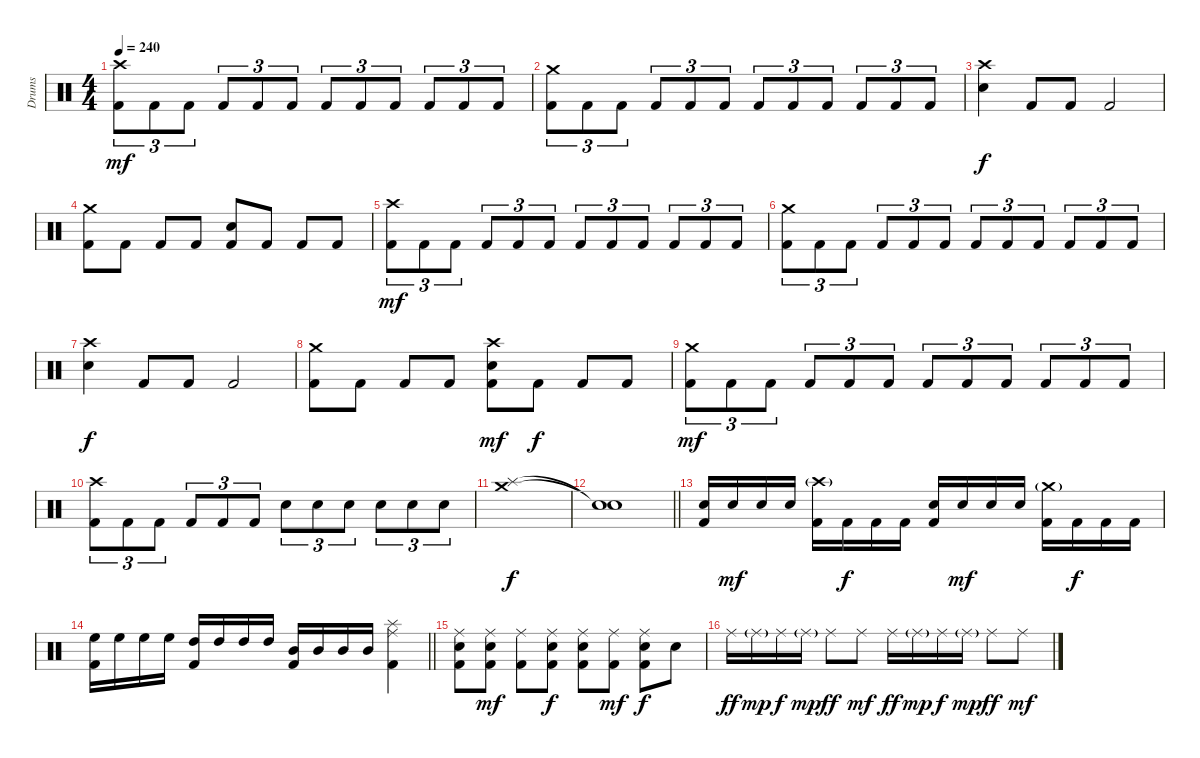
\track ("Drums" "Drums") {instrument percussion}
\staff {score}
\articulation defaults
\ts (4 4)
\tempo 240
\clef neutral
\ks c
("Crash high (hit)" "Kick (hit) 2").8{tu (3 2) dy mf} "Kick (hit) 2".8{tu (3 2)} "Kick (hit) 2".8{tu (3 2)} "Kick (hit) 2".8{tu (3 2)} "Kick (hit) 2".8{tu (3 2)} "Kick (hit) 2".8{tu (3 2)} "Kick (hit) 2".8{tu (3 2)} "Kick (hit) 2".8{tu (3 2)} "Kick (hit) 2".8{tu (3 2)} "Kick (hit) 2".8{tu (3 2)} "Kick (hit) 2".8{tu (3 2)} "Kick (hit) 2".8{tu (3 2)} |
("Crash medium (hit)" "Kick (hit) 2").8{tu (3 2)} "Kick (hit) 2".8{tu (3 2)} "Kick (hit) 2".8{tu (3 2)} "Kick (hit) 2".8{tu (3 2)} "Kick (hit) 2".8{tu (3 2)} "Kick (hit) 2".8{tu (3 2)} "Kick (hit) 2".8{tu (3 2)} "Kick (hit) 2".8{tu (3 2)} "Kick (hit) 2".8{tu (3 2)} "Kick (hit) 2".8{tu (3 2)} "Kick (hit) 2".8{tu (3 2)} "Kick (hit) 2".8{tu (3 2)} |
("Crash high (hit)" "Electric Snare (hit)").4{dy f} "Kick (hit) 2".8 "Kick (hit) 2".8 "Kick (hit) 2".2 |
("Crash medium (hit)" "Kick (hit) 2").8 "Kick (hit) 2".8 "Kick (hit) 2".8 "Kick (hit) 2".8 ("Electric Snare (hit)" "Kick (hit) 2").8 "Kick (hit) 2".8 "Kick (hit) 2".8 "Kick (hit) 2".8 |
("Crash high (hit)" "Kick (hit) 2").8{tu (3 2) dy mf} "Kick (hit) 2".8{tu (3 2)} "Kick (hit) 2".8{tu (3 2)} "Kick (hit) 2".8{tu (3 2)} "Kick (hit) 2".8{tu (3 2)} "Kick (hit) 2".8{tu (3 2)} "Kick (hit) 2".8{tu (3 2)} "Kick (hit) 2".8{tu (3 2)} "Kick (hit) 2".8{tu (3 2)} "Kick (hit) 2".8{tu (3 2)} "Kick (hit) 2".8{tu (3 2)} "Kick (hit) 2".8{tu (3 2)} |
("Crash medium (hit)" "Kick (hit) 2").8{tu (3 2)} "Kick (hit) 2".8{tu (3 2)} "Kick (hit) 2".8{tu (3 2)} "Kick (hit) 2".8{tu (3 2)} "Kick (hit) 2".8{tu (3 2)} "Kick (hit) 2".8{tu (3 2)} "Kick (hit) 2".8{tu (3 2)} "Kick (hit) 2".8{tu (3 2)} "Kick (hit) 2".8{tu (3 2)} "Kick (hit) 2".8{tu (3 2)} "Kick (hit) 2".8{tu (3 2)} "Kick (hit) 2".8{tu (3 2)} |
("Crash high (hit)" "Electric Snare (hit)").4{dy f} "Kick (hit) 2".8 "Kick (hit) 2".8 "Kick (hit) 2".2 |
("Crash medium (hit)" "Kick (hit) 2").8 "Kick (hit) 2".8 "Kick (hit) 2".8 "Kick (hit) 2".8 ("Crash high (hit)" "Electric Snare (hit)" "Kick (hit) 2").8{dy mf} "Kick (hit) 2".8{dy f} "Kick (hit) 2".8 "Kick (hit) 2".8 |
("Crash medium (hit)" "Kick (hit) 2").8{tu (3 2) dy mf} "Kick (hit) 2".8{tu (3 2)} "Kick (hit) 2".8{tu (3 2)} "Kick (hit) 2".8{tu (3 2)} "Kick (hit) 2".8{tu (3 2)} "Kick (hit) 2".8{tu (3 2)} "Kick (hit) 2".8{tu (3 2)} "Kick (hit) 2".8{tu (3 2)} "Kick (hit) 2".8{tu (3 2)} "Kick (hit) 2".8{tu (3 2)} "Kick (hit) 2".8{tu (3 2)} "Kick (hit) 2".8{tu (3 2)} |
("Crash high (hit)" "Kick (hit) 2").8{tu (3 2)} "Kick (hit) 2".8{tu (3 2)} "Kick (hit) 2".8{tu (3 2)} "Kick (hit) 2".8{tu (3 2)} "Kick (hit) 2".8{tu (3 2)} "Kick (hit) 2".8{tu (3 2)} "Electric Snare (hit)".8{tu (3 2)} "Electric Snare (hit)".8{tu (3 2)} "Electric Snare (hit)".8{tu (3 2)} "Electric Snare (hit)".8{tu (3 2)} "Electric Snare (hit)".8{tu (3 2)} "Electric Snare (hit)".8{tu (3 2)} |
("Crash medium (hit)" "Splash (hit)").1{dy f} |
\barLineRight lightlight
("Snare (hit)"{t} "Snare (hit)"{t}).1 |
("Electric Snare (hit)" "Kick (hit) 2").16{volume 16} "Electric Snare (hit)".16{dy mf} "Electric Snare (hit)".16 "Electric Snare (hit)".16 ("Crash high (hit)"{g} "Kick (hit) 2").16 "Kick (hit) 2".16{dy f} "Kick (hit) 2".16 "Kick (hit) 2".16 ("Electric Snare (hit)" "Kick (hit) 2").16 "Electric Snare (hit)".16{dy mf} "Electric Snare (hit)".16 "Electric Snare (hit)".16 ("Crash medium (hit)"{g} "Kick (hit) 2").16 "Kick (hit) 2".16{dy f} "Kick (hit) 2".16 "Kick (hit) 2".16 |
\barLineRight lightlight
("High Floor Tom (hit)" "Kick (hit) 2").16 "High Floor Tom (hit)".16 "High Floor Tom (hit)".16 "High Floor Tom (hit)".16 ("High Tom (hit)" "Kick (hit) 2").16 "High Tom (hit)".16 "High Tom (hit)".16 "High Tom (hit)".16 ("Mid Tom (hit)" "Kick (hit) 2").16 "Mid Tom (hit)".16 "Mid Tom (hit)".16 "Mid Tom (hit)".16 ("Splash (hit)" "Ride (middle)" "Kick (hit) 2").4 |
("Ride (middle)" "Electric Snare (hit)" "Kick (hit) 2").8 ("Ride (middle)" "Electric Snare (hit)" "Kick (hit) 2").8{dy mf} ("Ride (middle)" "Kick (hit) 2").8 ("Ride (middle)" "Electric Snare (hit)" "Kick (hit) 2").8{dy f} ("Ride (middle)" "Electric Snare (hit)" "Kick (hit) 2").8 ("Ride (middle)" "Kick (hit) 2").8{dy mf} ("Ride (middle)" "Electric Snare (hit)" "Kick (hit) 2").8{dy f} "Electric Snare (hit)".8 |
"Ride (middle)".16{dy ff} "Ride (middle)"{g}.16{dy mp} "Ride (middle)".16{dy f} "Ride (middle)"{g}.16{dy mp} "Ride (middle)".8{dy ff} "Ride (middle)".8{dy mf} "Ride (middle)".16{dy ff} "Ride (middle)"{g}.16{dy mp} "Ride (middle)".16{dy f} "Ride (middle)"{g}.16{dy mp} "Ride (middle)".8{dy ff} "Ride (middle)".8{dy mf}
